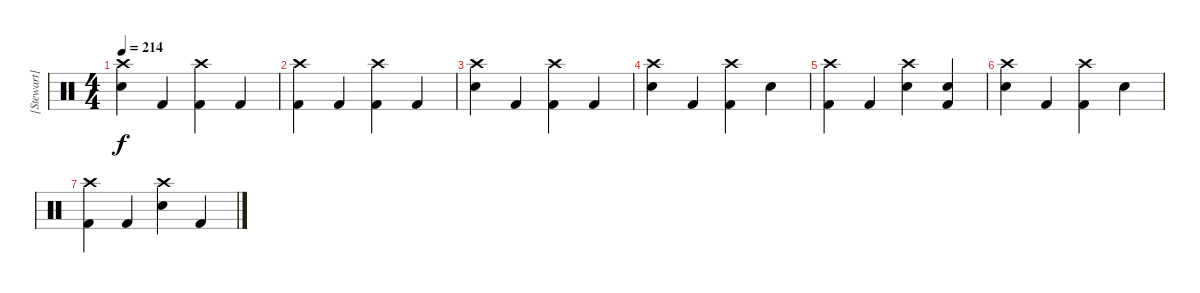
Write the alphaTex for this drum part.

\track ("[Stewart]" "[Stewart]") {instrument percussion}
\staff {score}
\articulation defaults
\ts (4 4)
\tempo 214
\clef neutral
\ks c
("Crash high (hit)" "Electric Snare (hit)").4{dy f} "Kick (hit) 2".4 ("Crash high (hit)" "Kick (hit) 2").4 "Kick (hit) 2".4 |
("Crash high (hit)" "Kick (hit) 2").4 "Kick (hit) 2".4 ("Crash high (hit)" "Kick (hit) 2").4 "Kick (hit) 2".4 |
("Crash high (hit)" "Electric Snare (hit)").4 "Kick (hit) 2".4 ("Crash high (hit)" "Kick (hit) 2").4 "Kick (hit) 2".4 |
("Crash high (hit)" "Electric Snare (hit)").4 "Kick (hit) 2".4 ("Crash high (hit)" "Kick (hit) 2").4 "Electric Snare (hit)".4 |
("Crash high (hit)" "Kick (hit) 2").4 "Kick (hit) 2".4 ("Crash high (hit)" "Electric Snare (hit)").4 ("Electric Snare (hit)" "Kick (hit) 2").4 |
("Crash high (hit)" "Electric Snare (hit)").4 "Kick (hit) 2".4 ("Crash high (hit)" "Kick (hit) 2").4 "Electric Snare (hit)".4 |
("Crash high (hit)" "Kick (hit) 2").4 "Kick (hit) 2".4 ("Crash high (hit)" "Electric Snare (hit)").4 "Kick (hit) 2".4
